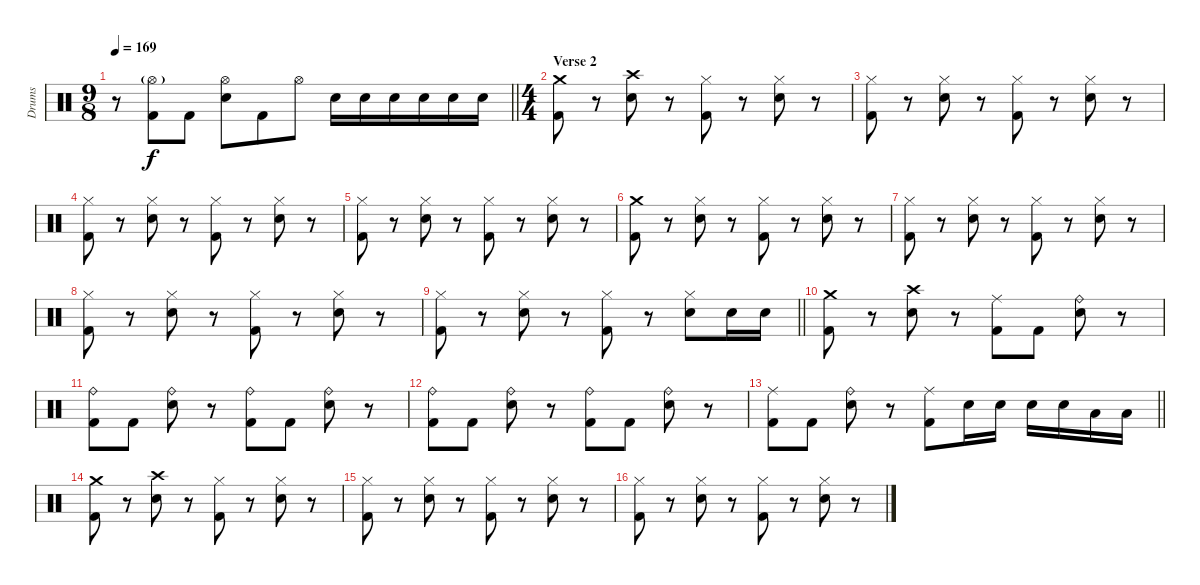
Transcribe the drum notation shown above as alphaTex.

\track ("Drums" "Drums") {instrument percussion}
\staff {score}
\articulation defaults
\ts (9 8)
\tempo 169
\clef neutral
\barLineRight lightlight
\ks c
r.8{dy f} ("Hi-Hat (open)"{g} "Kick (hit) 2").8 "Kick (hit) 2".8 ("Hi-Hat (open)" "Electric Snare (hit)").8 "Kick (hit) 2".8 "Hi-Hat (open)".8 "Electric Snare (hit)".16 "Electric Snare (hit)".16 "Electric Snare (hit)".16 "Electric Snare (hit)".16 "Electric Snare (hit)".16 "Electric Snare (hit)".16 |
\ts (4 4)
\section ("" "Verse 2")
("Crash medium (hit)" "Kick (hit) 2").8 r.8 ("Crash high (hit)" "Electric Snare (hit)").8 r.8 ("Hi-Hat (closed)" "Kick (hit) 2").8 r.8 ("Hi-Hat (closed)" "Electric Snare (hit)").8 r.8 |
("Hi-Hat (closed)" "Kick (hit) 2").8 r.8 ("Hi-Hat (closed)" "Electric Snare (hit)").8 r.8 ("Hi-Hat (closed)" "Kick (hit) 2").8 r.8 ("Hi-Hat (closed)" "Electric Snare (hit)").8 r.8 |
("Hi-Hat (closed)" "Kick (hit) 2").8 r.8 ("Hi-Hat (closed)" "Electric Snare (hit)").8 r.8 ("Hi-Hat (closed)" "Kick (hit) 2").8 r.8 ("Hi-Hat (closed)" "Electric Snare (hit)").8 r.8 |
("Hi-Hat (closed)" "Kick (hit) 2").8 r.8 ("Hi-Hat (closed)" "Electric Snare (hit)").8 r.8 ("Hi-Hat (closed)" "Kick (hit) 2").8 r.8 ("Hi-Hat (closed)" "Electric Snare (hit)").8 r.8 |
("Crash medium (hit)" "Kick (hit) 2").8 r.8 ("Hi-Hat (closed)" "Electric Snare (hit)").8 r.8 ("Hi-Hat (closed)" "Kick (hit) 2").8 r.8 ("Hi-Hat (closed)" "Electric Snare (hit)").8 r.8 |
("Hi-Hat (closed)" "Kick (hit) 2").8 r.8 ("Hi-Hat (closed)" "Electric Snare (hit)").8 r.8 ("Hi-Hat (closed)" "Kick (hit) 2").8 r.8 ("Hi-Hat (closed)" "Electric Snare (hit)").8 r.8 |
("Hi-Hat (closed)" "Kick (hit) 2").8 r.8 ("Hi-Hat (closed)" "Electric Snare (hit)").8 r.8 ("Hi-Hat (closed)" "Kick (hit) 2").8 r.8 ("Hi-Hat (closed)" "Electric Snare (hit)").8 r.8 |
\barLineRight lightlight
("Hi-Hat (closed)" "Kick (hit) 2").8 r.8 ("Hi-Hat (closed)" "Electric Snare (hit)").8 r.8 ("Hi-Hat (closed)" "Kick (hit) 2").8 r.8 ("Hi-Hat (closed)" "Electric Snare (hit)").8 "Electric Snare (hit)".16 "Electric Snare (hit)".16 |
("Crash medium (hit)" "Kick (hit) 2").8 r.8 ("Crash high (hit)" "Electric Snare (hit)").8 r.8 ("Ride (middle)" "Kick (hit) 2").8 "Kick (hit) 2".8 ("Ride (bell)" "Electric Snare (hit)").8 r.8 |
("Ride (bell)" "Kick (hit) 2").8 "Kick (hit) 2".8 ("Ride (bell)" "Electric Snare (hit)").8 r.8 ("Ride (bell)" "Kick (hit) 2").8 "Kick (hit) 2".8 ("Ride (bell)" "Electric Snare (hit)").8 r.8 |
("Ride (bell)" "Kick (hit) 2").8 "Kick (hit) 2".8 ("Ride (bell)" "Electric Snare (hit)").8 r.8 ("Ride (bell)" "Kick (hit) 2").8 "Kick (hit) 2".8 ("Ride (bell)" "Electric Snare (hit)").8 r.8 |
\barLineRight lightlight
("Ride (middle)" "Kick (hit) 2").8 "Kick (hit) 2".8 ("Ride (bell)" "Electric Snare (hit)").8 r.8 ("Ride (middle)" "Kick (hit) 2").8 "Electric Snare (hit)".16 "Electric Snare (hit)".16 "Electric Snare (hit)".16 "Electric Snare (hit)".16 "Low Tom (hit)".16 "Low Floor Tom (hit)".16 |
("Crash medium (hit)" "Kick (hit) 2").8 r.8 ("Crash high (hit)" "Electric Snare (hit)").8 r.8 ("Hi-Hat (closed)" "Kick (hit) 2").8 r.8 ("Hi-Hat (closed)" "Electric Snare (hit)").8 r.8 |
("Hi-Hat (closed)" "Kick (hit) 2").8 r.8 ("Hi-Hat (closed)" "Electric Snare (hit)").8 r.8 ("Hi-Hat (closed)" "Kick (hit) 2").8 r.8 ("Hi-Hat (closed)" "Electric Snare (hit)").8 r.8 |
("Hi-Hat (closed)" "Kick (hit) 2").8 r.8 ("Hi-Hat (closed)" "Electric Snare (hit)").8 r.8 ("Hi-Hat (closed)" "Kick (hit) 2").8 r.8 ("Hi-Hat (closed)" "Electric Snare (hit)").8 r.8
